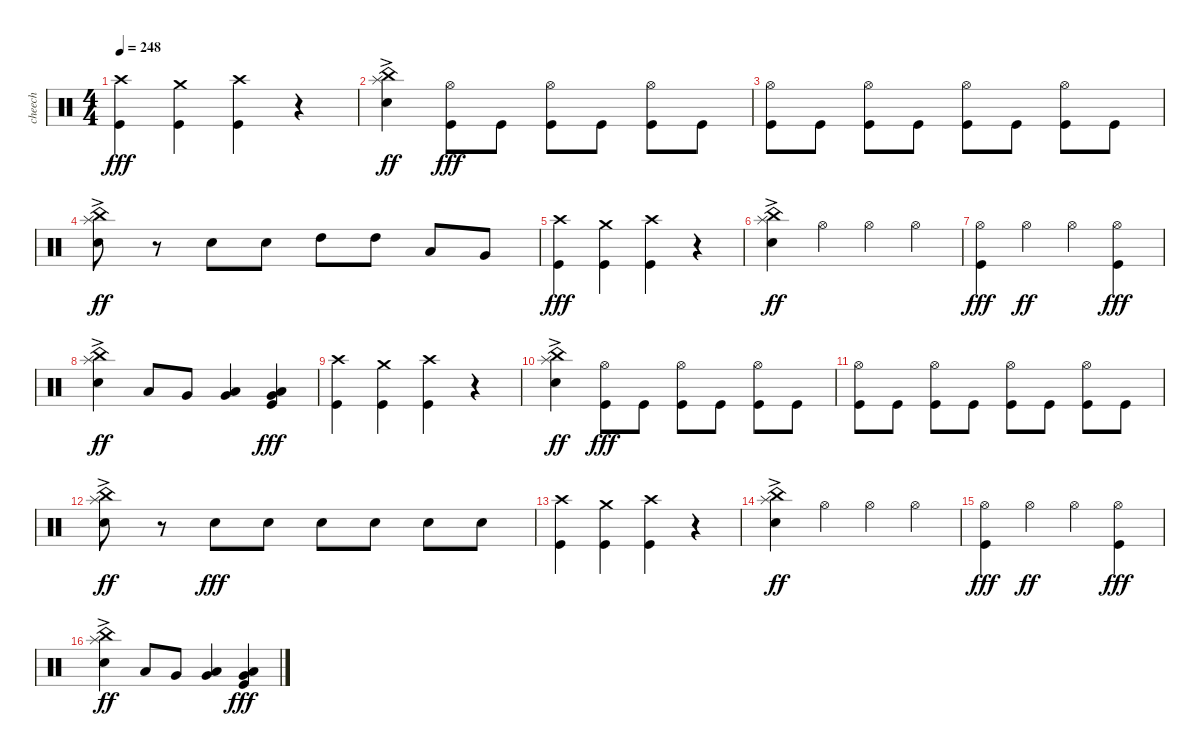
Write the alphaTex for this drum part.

\track ("cheech" "cheech") {instrument percussion}
\staff {score}
\articulation defaults
\ts (4 4)
\tempo 248
\clef neutral
\ks c
("Crash high (hit)" "Kick (hit)").4{dy fff} ("Crash medium (hit)" "Kick (hit)").4 ("Crash high (hit)" "Kick (hit)").4 r.4 |
("China (hit)"{ac} "Splash (hit)"{ac} "Electric Snare (hit)").4{dy ff} ("Hi-Hat (open)" "Kick (hit)").8{dy fff} "Kick (hit)".8 ("Hi-Hat (open)" "Kick (hit)").8 "Kick (hit)".8 ("Hi-Hat (open)" "Kick (hit)").8 "Kick (hit)".8 |
("Hi-Hat (open)" "Kick (hit)").8 "Kick (hit)".8 ("Hi-Hat (open)" "Kick (hit)").8 "Kick (hit)".8 ("Hi-Hat (open)" "Kick (hit)").8 "Kick (hit)".8 ("Hi-Hat (open)" "Kick (hit)").8 "Kick (hit)".8 |
("China (hit)"{ac} "Splash (hit)"{ac} "Electric Snare (hit)").8{dy ff} r.8 "Electric Snare (hit)".8 "Electric Snare (hit)".8 "High Tom (hit)".8 "High Tom (hit)".8 "Low Tom (hit)".8 "Very Low Tom (hit)".8 |
("Crash high (hit)" "Kick (hit)").4{dy fff} ("Crash medium (hit)" "Kick (hit)").4 ("Crash high (hit)" "Kick (hit)").4 r.4 |
("China (hit)"{ac} "Splash (hit)"{ac} "Electric Snare (hit)").4{dy ff} "Hi-Hat (open)".4 "Hi-Hat (open)".4 "Hi-Hat (open)".4 |
("Hi-Hat (open)" "Kick (hit)").4{dy fff} "Hi-Hat (open)".4{dy ff} "Hi-Hat (open)".4 ("Hi-Hat (open)" "Kick (hit)").4{dy fff} |
("China (hit)"{ac} "Splash (hit)"{ac} "Electric Snare (hit)").4{dy ff} "Low Tom (hit)".8 "Very Low Tom (hit)".8 ("Very Low Tom (hit)" "Low Floor Tom (hit)").4 ("Very Low Tom (hit)" "Low Floor Tom (hit)" "Kick (hit)").4{dy fff} |
("Crash high (hit)" "Kick (hit)").4 ("Crash medium (hit)" "Kick (hit)").4 ("Crash high (hit)" "Kick (hit)").4 r.4 |
("China (hit)"{ac} "Splash (hit)"{ac} "Electric Snare (hit)").4{dy ff} ("Hi-Hat (open)" "Kick (hit)").8{dy fff} "Kick (hit)".8 ("Hi-Hat (open)" "Kick (hit)").8 "Kick (hit)".8 ("Hi-Hat (open)" "Kick (hit)").8 "Kick (hit)".8 |
("Hi-Hat (open)" "Kick (hit)").8 "Kick (hit)".8 ("Hi-Hat (open)" "Kick (hit)").8 "Kick (hit)".8 ("Hi-Hat (open)" "Kick (hit)").8 "Kick (hit)".8 ("Hi-Hat (open)" "Kick (hit)").8 "Kick (hit)".8 |
("China (hit)"{ac} "Splash (hit)"{ac} "Electric Snare (hit)").8{dy ff} r.8 "Electric Snare (hit)".8{dy fff} "Electric Snare (hit)".8 "Electric Snare (hit)".8 "Electric Snare (hit)".8 "Electric Snare (hit)".8 "Electric Snare (hit)".8 |
("Crash high (hit)" "Kick (hit)").4 ("Crash medium (hit)" "Kick (hit)").4 ("Crash high (hit)" "Kick (hit)").4 r.4 |
("China (hit)"{ac} "Splash (hit)"{ac} "Electric Snare (hit)").4{dy ff} "Hi-Hat (open)".4 "Hi-Hat (open)".4 "Hi-Hat (open)".4 |
("Hi-Hat (open)" "Kick (hit)").4{dy fff} "Hi-Hat (open)".4{dy ff} "Hi-Hat (open)".4 ("Hi-Hat (open)" "Kick (hit)").4{dy fff} |
("China (hit)"{ac} "Splash (hit)"{ac} "Electric Snare (hit)").4{dy ff} "Low Tom (hit)".8 "Very Low Tom (hit)".8 ("Very Low Tom (hit)" "Low Floor Tom (hit)").4 ("Very Low Tom (hit)" "Low Floor Tom (hit)" "Kick (hit)").4{dy fff}
